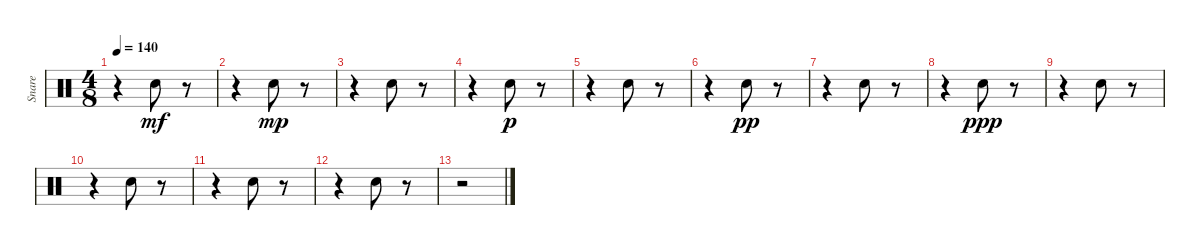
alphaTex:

\track ("Snare" "Snare") {instrument percussion}
\staff {score}
\articulation defaults
\ts (4 8)
\tempo 140
\clef neutral
\ks c
r.4{dy mf} "Snare (hit) 2".8 r.8 |
r.4 "Snare (hit) 2".8{dy mp} r.8 |
r.4 "Snare (hit) 2".8 r.8 |
r.4 "Snare (hit) 2".8{dy p} r.8 |
r.4 "Snare (hit) 2".8 r.8 |
r.4 "Snare (hit) 2".8{dy pp} r.8 |
r.4 "Snare (hit) 2".8 r.8 |
r.4 "Snare (hit) 2".8{dy ppp} r.8 |
r.4 "Snare (hit) 2".8 r.8 |
r.4 "Snare (hit) 2".8 r.8 |
r.4 "Snare (hit) 2".8 r.8 |
r.4 "Snare (hit) 2".8 r.8 |
r.2
